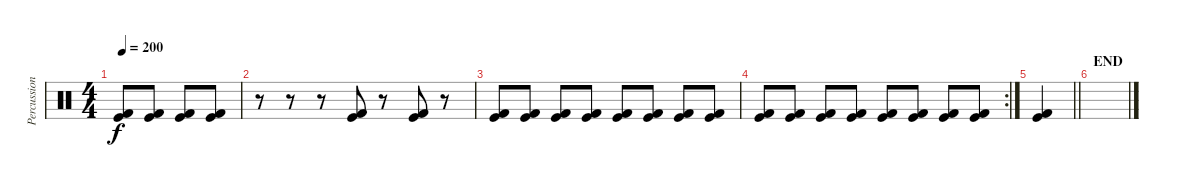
\track ("Percussion" "Percussion") {instrument percussion}
\staff {score}
\articulation defaults
\ts (4 4)
\tempo 200
\clef neutral
\ks c
("Kick (hit) 2" "Kick (hit)").8{dy f} ("Kick (hit) 2" "Kick (hit)").8 ("Kick (hit) 2" "Kick (hit)").8 ("Kick (hit) 2" "Kick (hit)").8 |
r.8 r.8 r.8 ("Kick (hit) 2" "Kick (hit)").8 r.8 ("Kick (hit) 2" "Kick (hit)").8 r.8 |
("Kick (hit) 2" "Kick (hit)").8 ("Kick (hit) 2" "Kick (hit)").8 ("Kick (hit) 2" "Kick (hit)").8 ("Kick (hit) 2" "Kick (hit)").8 ("Kick (hit) 2" "Kick (hit)").8 ("Kick (hit) 2" "Kick (hit)").8 ("Kick (hit) 2" "Kick (hit)").8 ("Kick (hit) 2" "Kick (hit)").8 |
\rc 2
("Kick (hit) 2" "Kick (hit)").8 ("Kick (hit) 2" "Kick (hit)").8 ("Kick (hit) 2" "Kick (hit)").8 ("Kick (hit) 2" "Kick (hit)").8 ("Kick (hit) 2" "Kick (hit)").8 ("Kick (hit) 2" "Kick (hit)").8 ("Kick (hit) 2" "Kick (hit)").8 ("Kick (hit) 2" "Kick (hit)").8 |
\barLineRight lightlight
("Kick (hit) 2" "Kick (hit)").4 |
\section ("" "END")
